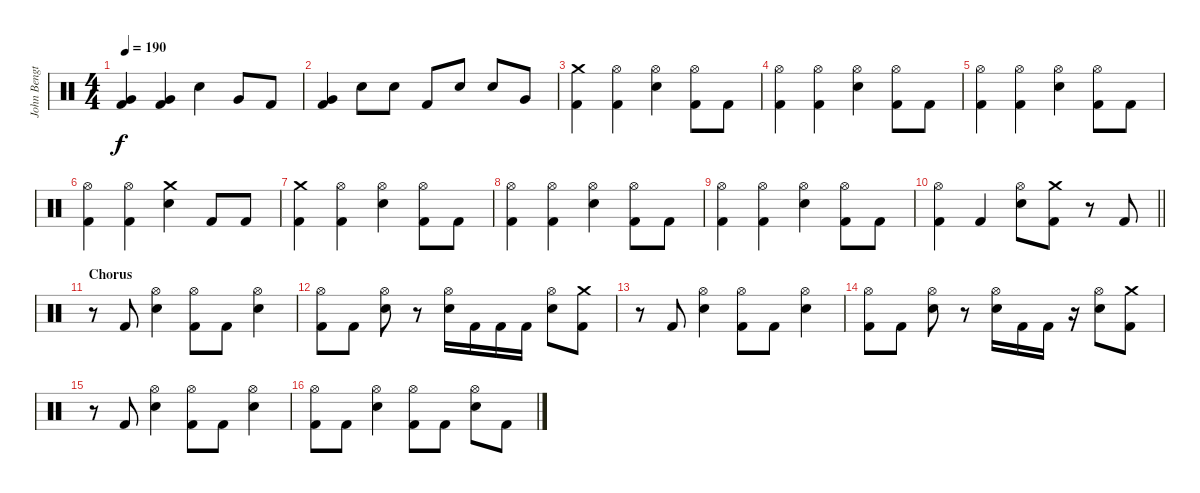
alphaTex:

\track ("John Bengtsson" "John Bengt") {instrument percussion}
\staff {score}
\articulation defaults
\ts (4 4)
\tempo 190
\clef neutral
\ks c
("Very Low Tom (hit)" "Kick (hit) 2").4{dy f} ("Very Low Tom (hit)" "Kick (hit) 2").4 "Electric Snare (hit)".4 "Very Low Tom (hit)".8 "Kick (hit) 2".8 |
("Very Low Tom (hit)" "Kick (hit) 2").4 "Electric Snare (hit)".8 "Electric Snare (hit)".8 "Kick (hit) 2".8 "Electric Snare (hit)".8 "Electric Snare (hit)".8 "Very Low Tom (hit)".8 |
("Crash medium (hit)" "Kick (hit) 2").4 ("Hi-Hat (open)" "Kick (hit) 2").4 ("Hi-Hat (open)" "Electric Snare (hit)").4 ("Hi-Hat (open)" "Kick (hit) 2").8 "Kick (hit) 2".8 |
("Hi-Hat (open)" "Kick (hit) 2").4 ("Hi-Hat (open)" "Kick (hit) 2").4 ("Hi-Hat (open)" "Electric Snare (hit)").4 ("Hi-Hat (open)" "Kick (hit) 2").8 "Kick (hit) 2".8 |
("Hi-Hat (open)" "Kick (hit) 2").4 ("Hi-Hat (open)" "Kick (hit) 2").4 ("Hi-Hat (open)" "Electric Snare (hit)").4 ("Hi-Hat (open)" "Kick (hit) 2").8 "Kick (hit) 2".8 |
("Hi-Hat (open)" "Kick (hit) 2").4 ("Hi-Hat (open)" "Kick (hit) 2").4 ("Crash medium (hit)" "Electric Snare (hit)").4 "Kick (hit) 2".8 "Kick (hit) 2".8 |
("Crash medium (hit)" "Kick (hit) 2").4 ("Hi-Hat (open)" "Kick (hit) 2").4 ("Hi-Hat (open)" "Electric Snare (hit)").4 ("Hi-Hat (open)" "Kick (hit) 2").8 "Kick (hit) 2".8 |
("Hi-Hat (open)" "Kick (hit) 2").4 ("Hi-Hat (open)" "Kick (hit) 2").4 ("Hi-Hat (open)" "Electric Snare (hit)").4 ("Hi-Hat (open)" "Kick (hit) 2").8 "Kick (hit) 2".8 |
("Hi-Hat (open)" "Kick (hit) 2").4 ("Hi-Hat (open)" "Kick (hit) 2").4 ("Hi-Hat (open)" "Electric Snare (hit)").4 ("Hi-Hat (open)" "Kick (hit) 2").8 "Kick (hit) 2".8 |
\barLineRight lightlight
("Hi-Hat (open)" "Kick (hit) 2").4 "Kick (hit) 2".4 ("Hi-Hat (open)" "Electric Snare (hit)").8 ("Crash medium (hit)" "Kick (hit) 2").8 r.8 "Kick (hit) 2".8 |
\section ("" "Chorus")
r.8 "Kick (hit) 2".8 ("Hi-Hat (open)" "Electric Snare (hit)").4 ("Hi-Hat (open)" "Kick (hit) 2").8 "Kick (hit) 2".8 ("Hi-Hat (open)" "Electric Snare (hit)").4 |
("Hi-Hat (open)" "Kick (hit) 2").8 "Kick (hit) 2".8 ("Hi-Hat (open)" "Electric Snare (hit)").8 r.8 ("Hi-Hat (open)" "Electric Snare (hit)").16 "Kick (hit) 2".16 "Kick (hit) 2".16 "Kick (hit) 2".16 ("Hi-Hat (open)" "Electric Snare (hit)").8 ("Crash medium (hit)" "Kick (hit) 2").8 |
r.8 "Kick (hit) 2".8 ("Hi-Hat (open)" "Electric Snare (hit)").4 ("Hi-Hat (open)" "Kick (hit) 2").8 "Kick (hit) 2".8 ("Hi-Hat (open)" "Electric Snare (hit)").4 |
("Hi-Hat (open)" "Kick (hit) 2").8 "Kick (hit) 2".8 ("Hi-Hat (open)" "Electric Snare (hit)").8 r.8 ("Hi-Hat (open)" "Electric Snare (hit)").16 "Kick (hit) 2".16 "Kick (hit) 2".16 r.16 ("Hi-Hat (open)" "Electric Snare (hit)").8 ("Crash medium (hit)" "Kick (hit) 2").8 |
r.8 "Kick (hit) 2".8 ("Hi-Hat (open)" "Electric Snare (hit)").4 ("Hi-Hat (open)" "Kick (hit) 2").8 "Kick (hit) 2".8 ("Hi-Hat (open)" "Electric Snare (hit)").4 |
("Hi-Hat (open)" "Kick (hit) 2").8 "Kick (hit) 2".8 ("Hi-Hat (open)" "Electric Snare (hit)").4 ("Hi-Hat (open)" "Kick (hit) 2").8 "Kick (hit) 2".8 ("Hi-Hat (open)" "Electric Snare (hit)").8 "Kick (hit) 2".8
